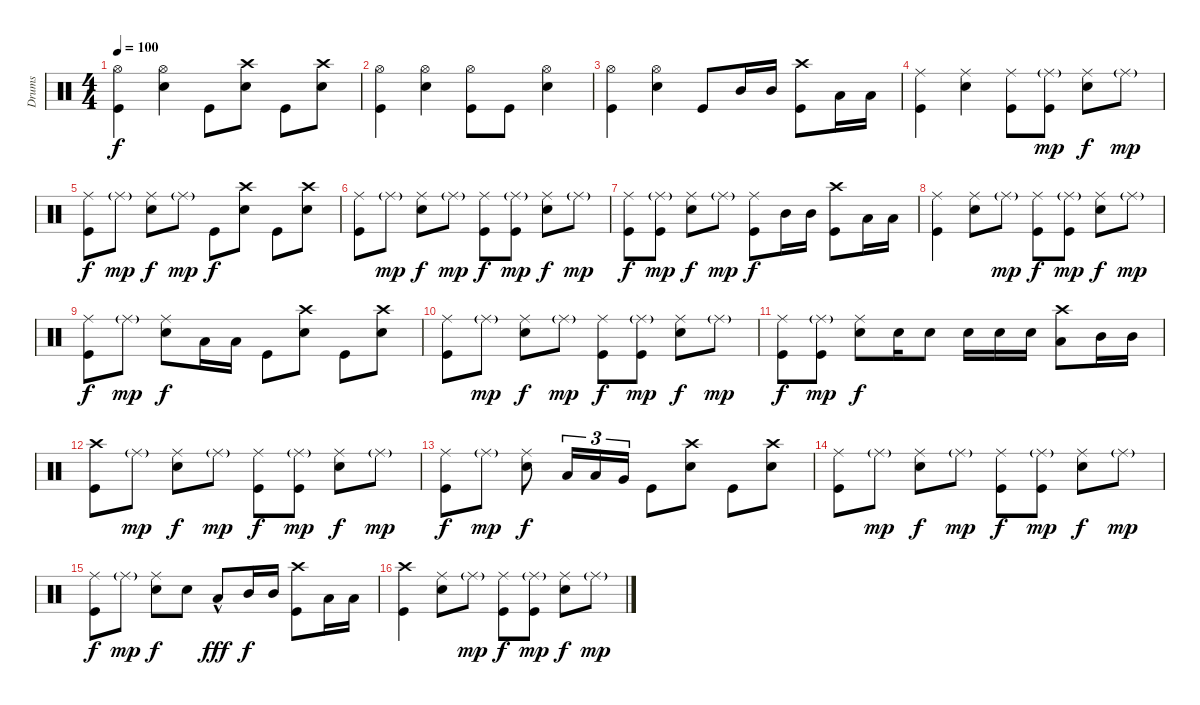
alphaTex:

\track ("Drums" "Drums") {instrument percussion}
\staff {score}
\articulation defaults
\ts (4 4)
\tempo 100
\clef neutral
\ks c
("Hi-Hat (open)" "Kick (hit)").4{dy f} ("Hi-Hat (open)" "Snare (hit) 2").4 "Kick (hit)".8 ("Crash high (hit)" "Snare (hit) 2").8 "Kick (hit)".8 ("Crash high (hit)" "Snare (hit) 2").8 |
("Hi-Hat (open)" "Kick (hit)").4 ("Hi-Hat (open)" "Snare (hit) 2").4 ("Hi-Hat (open)" "Kick (hit)").8 "Kick (hit)".8 ("Hi-Hat (open)" "Snare (hit) 2").4 |
("Hi-Hat (open)" "Kick (hit)").4 ("Hi-Hat (open)" "Snare (hit) 2").4 "Kick (hit)".8 "Mid Tom (hit)".16 "Mid Tom (hit)".16 ("Crash high (hit)" "Kick (hit)").8 "Low Tom (hit)".16 "Low Tom (hit)".16 |
("Ride (middle)" "Kick (hit)").4 ("Ride (middle)" "Snare (hit) 2").4 ("Ride (middle)" "Kick (hit)").8 ("Ride (middle)"{g} "Kick (hit)").8{dy mp} ("Ride (middle)" "Snare (hit) 2").8{dy f} "Ride (middle)"{g}.8{dy mp} |
("Ride (middle)" "Kick (hit)").8{dy f} "Ride (middle)"{g}.8{dy mp} ("Ride (middle)" "Snare (hit) 2").8{dy f} "Ride (middle)"{g}.8{dy mp} "Kick (hit)".8{dy f} ("Crash high (hit)" "Snare (hit) 2").8 "Kick (hit)".8 ("Crash high (hit)" "Snare (hit) 2").8 |
("Ride (middle)" "Kick (hit)").8 "Ride (middle)"{g}.8{dy mp} ("Ride (middle)" "Snare (hit) 2").8{dy f} "Ride (middle)"{g}.8{dy mp} ("Ride (middle)" "Kick (hit)").8{dy f} ("Ride (middle)"{g} "Kick (hit)").8{dy mp} ("Ride (middle)" "Snare (hit) 2").8{dy f} "Ride (middle)"{g}.8{dy mp} |
("Ride (middle)" "Kick (hit)").8{dy f} ("Ride (middle)"{g} "Kick (hit)").8{dy mp} ("Ride (middle)" "Snare (hit) 2").8{dy f} "Ride (middle)"{g}.8{dy mp} ("Ride (middle)" "Kick (hit)").8{dy f} "Mid Tom (hit)".16 "Mid Tom (hit)".16 ("Crash high (hit)" "Kick (hit)").8 "Low Tom (hit)".16 "Low Tom (hit)".16 |
("Ride (middle)" "Kick (hit)").4 ("Ride (middle)" "Snare (hit) 2").8 "Ride (middle)"{g}.8{dy mp} ("Ride (middle)" "Kick (hit)").8{dy f} ("Ride (middle)"{g} "Kick (hit)").8{dy mp} ("Ride (middle)" "Snare (hit) 2").8{dy f} "Ride (middle)"{g}.8{dy mp} |
("Ride (middle)" "Kick (hit)").8{dy f} "Ride (middle)"{g}.8{dy mp} ("Ride (middle)" "Snare (hit) 2").8{dy f} "Low Tom (hit)".16 "Low Tom (hit)".16 "Kick (hit)".8 ("Crash high (hit)" "Snare (hit) 2").8 "Kick (hit)".8 ("Crash high (hit)" "Snare (hit) 2").8 |
("Ride (middle)" "Kick (hit)").8 "Ride (middle)"{g}.8{dy mp} ("Ride (middle)" "Snare (hit) 2").8{dy f} "Ride (middle)"{g}.8{dy mp} ("Ride (middle)" "Kick (hit)").8{dy f} ("Ride (middle)"{g} "Kick (hit)").8{dy mp} ("Ride (middle)" "Snare (hit) 2").8{dy f} "Ride (middle)"{g}.8{dy mp} |
("Ride (middle)" "Kick (hit)").8{dy f} ("Ride (middle)"{g} "Kick (hit)").8{dy mp} ("Ride (middle)" "Snare (hit) 2").8{dy f} "Snare (hit) 2".16 "Snare (hit) 2".8 "Snare (hit) 2".16 "Snare (hit) 2".16 "Snare (hit) 2".16 ("Crash high (hit)" "Low Tom (hit)").8 "Mid Tom (hit)".16 "Mid Tom (hit)".16 |
("Crash high (hit)" "Kick (hit)").8 "Ride (middle)"{g}.8{dy mp} ("Ride (middle)" "Snare (hit) 2").8{dy f} "Ride (middle)"{g}.8{dy mp} ("Ride (middle)" "Kick (hit)").8{dy f} ("Ride (middle)"{g} "Kick (hit)").8{dy mp} ("Ride (middle)" "Snare (hit) 2").8{dy f} "Ride (middle)"{g}.8{dy mp} |
("Ride (middle)" "Kick (hit)").8{dy f} "Ride (middle)"{g}.8{dy mp} ("Ride (middle)" "Snare (hit) 2").8{dy f} "Low Tom (hit)".16{tu (3 2)} "Low Tom (hit)".16{tu (3 2)} "Very Low Tom (hit)".16{tu (3 2)} "Kick (hit)".8 ("Crash high (hit)" "Snare (hit) 2").8 "Kick (hit)".8 ("Crash high (hit)" "Snare (hit) 2").8 |
("Ride (middle)" "Kick (hit)").8 "Ride (middle)"{g}.8{dy mp} ("Ride (middle)" "Snare (hit) 2").8{dy f} "Ride (middle)"{g}.8{dy mp} ("Ride (middle)" "Kick (hit)").8{dy f} ("Ride (middle)"{g} "Kick (hit)").8{dy mp} ("Ride (middle)" "Snare (hit) 2").8{dy f} "Ride (middle)"{g}.8{dy mp} |
("Ride (middle)" "Kick (hit)").8{dy f} "Ride (middle)"{g}.8{dy mp} ("Ride (middle)" "Snare (hit) 2").8{dy f} "Snare (hit) 2".8 "Low Tom (hit)"{hac}.8{dy fff} "Mid Tom (hit)".16{dy f} "Mid Tom (hit)".16 ("Crash high (hit)" "Kick (hit)").8 "Low Tom (hit)".16 "Low Tom (hit)".16 |
("Crash high (hit)" "Kick (hit)").4 ("Ride (middle)" "Snare (hit) 2").8 "Ride (middle)"{g}.8{dy mp} ("Ride (middle)" "Kick (hit)").8{dy f} ("Ride (middle)"{g} "Kick (hit)").8{dy mp} ("Ride (middle)" "Snare (hit) 2").8{dy f} "Ride (middle)"{g}.8{dy mp}
